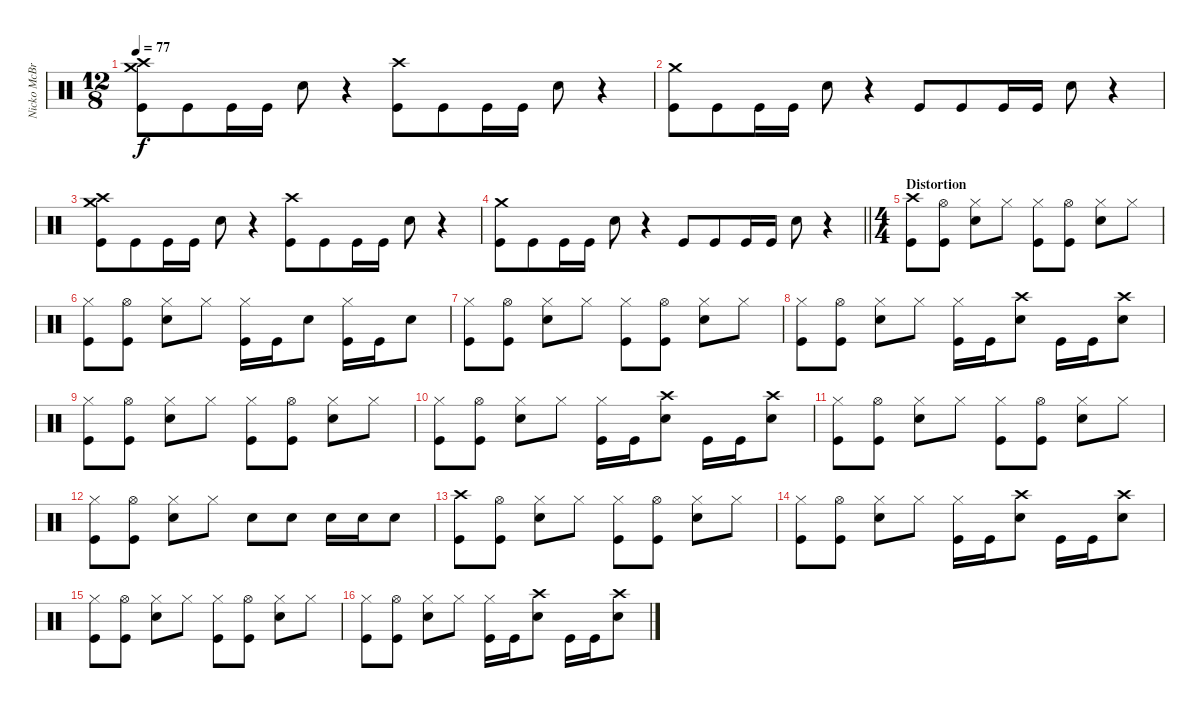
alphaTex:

\track ("Nicko McBrain" "Nicko McBr") {instrument percussion}
\staff {score}
\articulation defaults
\ts (12 8)
\tempo 77
\clef neutral
\ks c
("Crash high (hit)" "Crash medium (hit)" "Kick (hit)").8{dy f} "Kick (hit)".8 "Kick (hit)".16 "Kick (hit)".16 "Snare (hit) 2".8 r.4 ("Crash high (hit)" "Kick (hit)").8 "Kick (hit)".8 "Kick (hit)".16 "Kick (hit)".16 "Snare (hit) 2".8 r.4 |
("Crash medium (hit)" "Kick (hit)").8 "Kick (hit)".8 "Kick (hit)".16 "Kick (hit)".16 "Snare (hit) 2".8 r.4 "Kick (hit)".8 "Kick (hit)".8 "Kick (hit)".16 "Kick (hit)".16 "Snare (hit) 2".8 r.4 |
("Crash high (hit)" "Crash medium (hit)" "Kick (hit)").8 "Kick (hit)".8 "Kick (hit)".16 "Kick (hit)".16 "Snare (hit) 2".8 r.4 ("Crash high (hit)" "Kick (hit)").8 "Kick (hit)".8 "Kick (hit)".16 "Kick (hit)".16 "Snare (hit) 2".8 r.4 |
\barLineRight lightlight
("Crash medium (hit)" "Kick (hit)").8 "Kick (hit)".8 "Kick (hit)".16 "Kick (hit)".16 "Snare (hit) 2".8 r.4 "Kick (hit)".8 "Kick (hit)".8 "Kick (hit)".16 "Kick (hit)".16 "Snare (hit) 2".8 r.4 |
\ts (4 4)
\section ("" "Distortion")
("Crash high (hit)" "Kick (hit)").8 ("Hi-Hat (open)" "Kick (hit)").8 ("Hi-Hat (closed)" "Snare (hit) 2").8 "Hi-Hat (closed)".8 ("Hi-Hat (closed)" "Kick (hit)").8 ("Hi-Hat (open)" "Kick (hit)").8 ("Hi-Hat (closed)" "Snare (hit) 2").8 "Hi-Hat (closed)".8 |
("Hi-Hat (closed)" "Kick (hit)").8 ("Hi-Hat (open)" "Kick (hit)").8 ("Hi-Hat (closed)" "Snare (hit) 2").8 "Hi-Hat (closed)".8 ("Hi-Hat (closed)" "Kick (hit)").16 "Kick (hit)".16 "Snare (hit) 2".8 ("Hi-Hat (closed)" "Kick (hit)").16 "Kick (hit)".16 "Snare (hit) 2".8 |
("Hi-Hat (closed)" "Kick (hit)").8 ("Hi-Hat (open)" "Kick (hit)").8 ("Hi-Hat (closed)" "Snare (hit) 2").8 "Hi-Hat (closed)".8 ("Hi-Hat (closed)" "Kick (hit)").8 ("Hi-Hat (open)" "Kick (hit)").8 ("Hi-Hat (closed)" "Snare (hit) 2").8 "Hi-Hat (closed)".8 |
("Hi-Hat (closed)" "Kick (hit)").8 ("Hi-Hat (open)" "Kick (hit)").8 ("Hi-Hat (closed)" "Snare (hit) 2").8 "Hi-Hat (closed)".8 ("Hi-Hat (closed)" "Kick (hit)").16 "Kick (hit)".16 ("Crash high (hit)" "Snare (hit) 2").8 "Kick (hit)".16 "Kick (hit)".16 ("Crash high (hit)" "Snare (hit) 2").8 |
("Hi-Hat (closed)" "Kick (hit)").8 ("Hi-Hat (open)" "Kick (hit)").8 ("Hi-Hat (closed)" "Snare (hit) 2").8 "Hi-Hat (closed)".8 ("Hi-Hat (closed)" "Kick (hit)").8 ("Hi-Hat (open)" "Kick (hit)").8 ("Hi-Hat (closed)" "Snare (hit) 2").8 "Hi-Hat (closed)".8 |
("Hi-Hat (closed)" "Kick (hit)").8 ("Hi-Hat (open)" "Kick (hit)").8 ("Hi-Hat (closed)" "Snare (hit) 2").8 "Hi-Hat (closed)".8 ("Hi-Hat (closed)" "Kick (hit)").16 "Kick (hit)".16 ("Crash high (hit)" "Snare (hit) 2").8 "Kick (hit)".16 "Kick (hit)".16 ("Crash high (hit)" "Snare (hit) 2").8 |
("Hi-Hat (closed)" "Kick (hit)").8 ("Hi-Hat (open)" "Kick (hit)").8 ("Hi-Hat (closed)" "Snare (hit) 2").8 "Hi-Hat (closed)".8 ("Hi-Hat (closed)" "Kick (hit)").8 ("Hi-Hat (open)" "Kick (hit)").8 ("Hi-Hat (closed)" "Snare (hit) 2").8 "Hi-Hat (closed)".8 |
("Hi-Hat (closed)" "Kick (hit)").8 ("Hi-Hat (open)" "Kick (hit)").8 ("Hi-Hat (closed)" "Snare (hit) 2").8 "Hi-Hat (closed)".8 "Snare (hit) 2".8 "Snare (hit) 2".8 "Snare (hit) 2".16 "Snare (hit) 2".16 "Snare (hit) 2".8 |
("Crash high (hit)" "Kick (hit)").8 ("Hi-Hat (open)" "Kick (hit)").8 ("Hi-Hat (closed)" "Snare (hit) 2").8 "Hi-Hat (closed)".8 ("Hi-Hat (closed)" "Kick (hit)").8 ("Hi-Hat (open)" "Kick (hit)").8 ("Hi-Hat (closed)" "Snare (hit) 2").8 "Hi-Hat (closed)".8 |
("Hi-Hat (closed)" "Kick (hit)").8 ("Hi-Hat (open)" "Kick (hit)").8 ("Hi-Hat (closed)" "Snare (hit) 2").8 "Hi-Hat (closed)".8 ("Hi-Hat (closed)" "Kick (hit)").16 "Kick (hit)".16 ("Crash high (hit)" "Snare (hit) 2").8 "Kick (hit)".16 "Kick (hit)".16 ("Crash high (hit)" "Snare (hit) 2").8 |
("Hi-Hat (closed)" "Kick (hit)").8 ("Hi-Hat (open)" "Kick (hit)").8 ("Hi-Hat (closed)" "Snare (hit) 2").8 "Hi-Hat (closed)".8 ("Hi-Hat (closed)" "Kick (hit)").8 ("Hi-Hat (open)" "Kick (hit)").8 ("Hi-Hat (closed)" "Snare (hit) 2").8 "Hi-Hat (closed)".8 |
("Hi-Hat (closed)" "Kick (hit)").8 ("Hi-Hat (open)" "Kick (hit)").8 ("Hi-Hat (closed)" "Snare (hit) 2").8 "Hi-Hat (closed)".8 ("Hi-Hat (closed)" "Kick (hit)").16 "Kick (hit)".16 ("Crash high (hit)" "Snare (hit) 2").8 "Kick (hit)".16 "Kick (hit)".16 ("Crash high (hit)" "Snare (hit) 2").8
